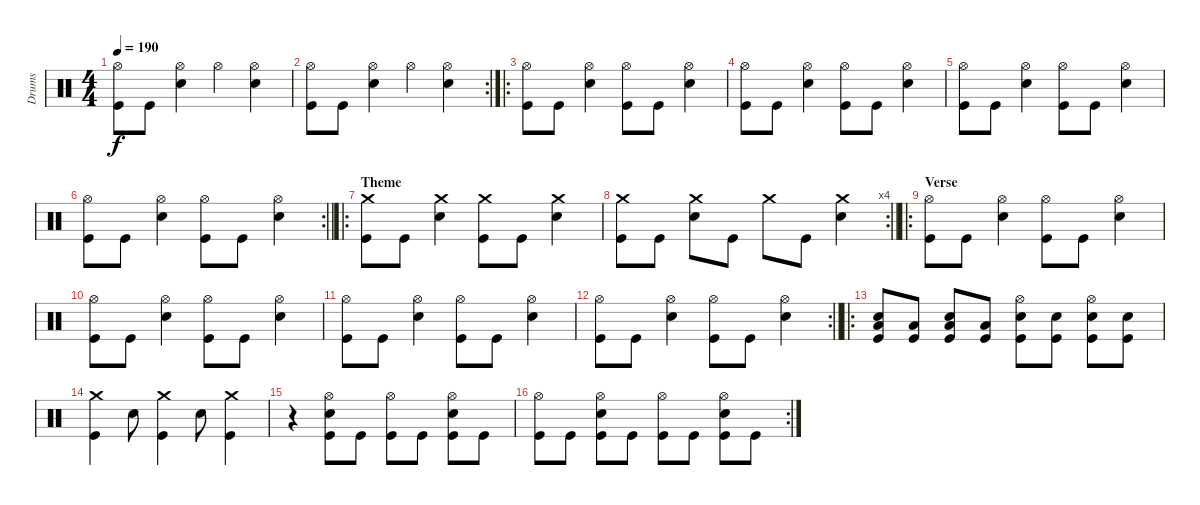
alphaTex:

\track ("Drums" "Drums") {instrument percussion}
\staff {score}
\articulation defaults
\ts (4 4)
\tempo 190
\clef neutral
\ks c
("Hi-Hat (open)" "Kick (hit)").8{dy f} "Kick (hit)".8 ("Hi-Hat (open)" "Snare (hit) 2").4 "Hi-Hat (open)".4 ("Hi-Hat (open)" "Snare (hit) 2").4 |
\rc 2
("Hi-Hat (open)" "Kick (hit)").8 "Kick (hit)".8 ("Hi-Hat (open)" "Snare (hit) 2").4 "Hi-Hat (open)".4 ("Hi-Hat (open)" "Snare (hit) 2").4 |
\ro
("Hi-Hat (open)" "Kick (hit)").8 "Kick (hit)".8 ("Hi-Hat (open)" "Snare (hit) 2").4 ("Hi-Hat (open)" "Kick (hit)").8 "Kick (hit)".8 ("Hi-Hat (open)" "Snare (hit) 2").4 |
("Hi-Hat (open)" "Kick (hit)").8 "Kick (hit)".8 ("Hi-Hat (open)" "Snare (hit) 2").4 ("Hi-Hat (open)" "Kick (hit)").8 "Kick (hit)".8 ("Hi-Hat (open)" "Snare (hit) 2").4 |
("Hi-Hat (open)" "Kick (hit)").8 "Kick (hit)".8 ("Hi-Hat (open)" "Snare (hit) 2").4 ("Hi-Hat (open)" "Kick (hit)").8 "Kick (hit)".8 ("Hi-Hat (open)" "Snare (hit) 2").4 |
\rc 2
\barLineRight lightlight
("Hi-Hat (open)" "Kick (hit)").8 "Kick (hit)".8 ("Hi-Hat (open)" "Snare (hit) 2").4 ("Hi-Hat (open)" "Kick (hit)").8 "Kick (hit)".8 ("Hi-Hat (open)" "Snare (hit) 2").4 |
\ro
\section ("" "Theme")
("Crash medium (hit)" "Kick (hit)").8 "Kick (hit)".8 ("Crash medium (hit)" "Snare (hit) 2").4 ("Crash medium (hit)" "Kick (hit)").8 "Kick (hit)".8 ("Crash medium (hit)" "Snare (hit) 2").4 |
\rc 4
\barLineRight lightlight
("Crash medium (hit)" "Kick (hit)").8 "Kick (hit)".8 ("Crash medium (hit)" "Snare (hit) 2").8 "Kick (hit)".8 "Crash medium (hit)".8 "Kick (hit)".8 ("Crash medium (hit)" "Snare (hit) 2").4 |
\ro
\section ("" "Verse")
("Hi-Hat (open)" "Kick (hit)").8 "Kick (hit)".8 ("Hi-Hat (open)" "Snare (hit) 2").4 ("Hi-Hat (open)" "Kick (hit)").8 "Kick (hit)".8 ("Hi-Hat (open)" "Snare (hit) 2").4 |
("Hi-Hat (open)" "Kick (hit)").8 "Kick (hit)".8 ("Hi-Hat (open)" "Snare (hit) 2").4 ("Hi-Hat (open)" "Kick (hit)").8 "Kick (hit)".8 ("Hi-Hat (open)" "Snare (hit) 2").4 |
("Hi-Hat (open)" "Kick (hit)").8 "Kick (hit)".8 ("Hi-Hat (open)" "Snare (hit) 2").4 ("Hi-Hat (open)" "Kick (hit)").8 "Kick (hit)".8 ("Hi-Hat (open)" "Snare (hit) 2").4 |
\rc 2
\barLineRight lightlight
("Hi-Hat (open)" "Kick (hit)").8 "Kick (hit)".8 ("Hi-Hat (open)" "Snare (hit) 2").4 ("Hi-Hat (open)" "Kick (hit)").8 "Kick (hit)".8 ("Hi-Hat (open)" "Snare (hit) 2").4 |
\ro
("Snare (hit) 2" "Low Floor Tom (hit)" "Kick (hit)").8 ("Low Floor Tom (hit)" "Kick (hit)").8 ("Snare (hit) 2" "Low Floor Tom (hit)" "Kick (hit)").8 ("Low Floor Tom (hit)" "Kick (hit)").8 ("Hi-Hat (open)" "Snare (hit) 2" "Kick (hit)").8 ("Snare (hit) 2" "Kick (hit)").8 ("Hi-Hat (open)" "Snare (hit) 2" "Kick (hit)").8 ("Snare (hit) 2" "Kick (hit)").8 |
("Crash medium (hit)" "Kick (hit)").4 "Snare (hit) 2".8 ("Crash medium (hit)" "Kick (hit)").4 "Snare (hit) 2".8 ("Crash medium (hit)" "Kick (hit)").4 |
r.4 ("Hi-Hat (open)" "Snare (hit) 2" "Kick (hit)").8 "Kick (hit)".8 ("Hi-Hat (open)" "Kick (hit)").8 "Kick (hit)".8 ("Hi-Hat (open)" "Snare (hit) 2" "Kick (hit)").8 "Kick (hit)".8 |
\rc 2
("Hi-Hat (open)" "Kick (hit)").8 "Kick (hit)".8 ("Hi-Hat (open)" "Snare (hit) 2" "Kick (hit)").8 "Kick (hit)".8 ("Hi-Hat (open)" "Kick (hit)").8 "Kick (hit)".8 ("Hi-Hat (open)" "Snare (hit) 2" "Kick (hit)").8 "Kick (hit)".8
